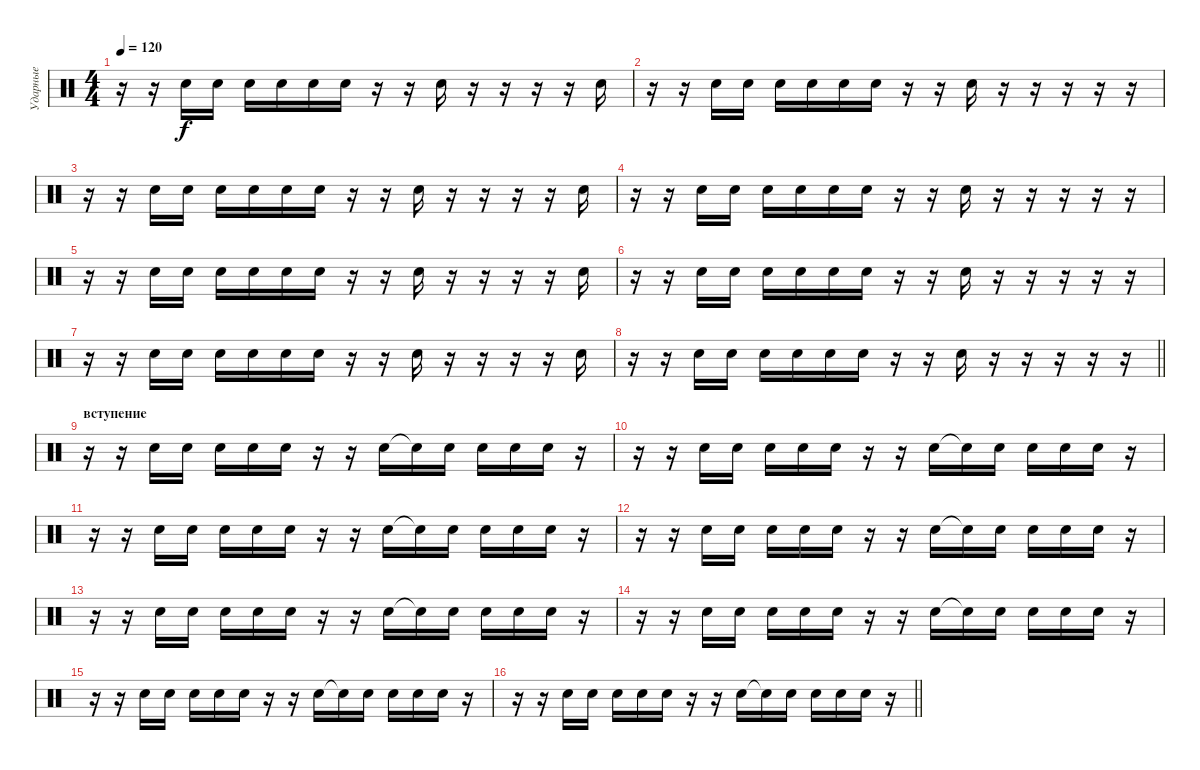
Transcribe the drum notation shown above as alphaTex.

\track ("Ударные" "Ударные") {instrument percussion}
\staff {score}
\articulation defaults
\ts (4 4)
\tempo 120
\clef neutral
\ks c
r.16{dy f} r.16 "Hand Clap (hit)".16 "Hand Clap (hit)".16 "Hand Clap (hit)".16 "Hand Clap (hit)".16 "Hand Clap (hit)".16 "Hand Clap (hit)".16 r.16 r.16 "Hand Clap (hit)".16 r.16 r.16 r.16 r.16 "Hand Clap (hit)".16 |
r.16 r.16 "Hand Clap (hit)".16 "Hand Clap (hit)".16 "Hand Clap (hit)".16 "Hand Clap (hit)".16 "Hand Clap (hit)".16 "Hand Clap (hit)".16 r.16 r.16 "Hand Clap (hit)".16 r.16 r.16 r.16 r.16 r.16 |
r.16 r.16 "Hand Clap (hit)".16 "Hand Clap (hit)".16 "Hand Clap (hit)".16 "Hand Clap (hit)".16 "Hand Clap (hit)".16 "Hand Clap (hit)".16 r.16 r.16 "Hand Clap (hit)".16 r.16 r.16 r.16 r.16 "Hand Clap (hit)".16 |
r.16 r.16 "Hand Clap (hit)".16 "Hand Clap (hit)".16 "Hand Clap (hit)".16 "Hand Clap (hit)".16 "Hand Clap (hit)".16 "Hand Clap (hit)".16 r.16 r.16 "Hand Clap (hit)".16 r.16 r.16 r.16 r.16 r.16 |
r.16 r.16 "Hand Clap (hit)".16 "Hand Clap (hit)".16 "Hand Clap (hit)".16 "Hand Clap (hit)".16 "Hand Clap (hit)".16 "Hand Clap (hit)".16 r.16 r.16 "Hand Clap (hit)".16 r.16 r.16 r.16 r.16 "Hand Clap (hit)".16 |
r.16 r.16 "Hand Clap (hit)".16 "Hand Clap (hit)".16 "Hand Clap (hit)".16 "Hand Clap (hit)".16 "Hand Clap (hit)".16 "Hand Clap (hit)".16 r.16 r.16 "Hand Clap (hit)".16 r.16 r.16 r.16 r.16 r.16 |
r.16 r.16 "Hand Clap (hit)".16 "Hand Clap (hit)".16 "Hand Clap (hit)".16 "Hand Clap (hit)".16 "Hand Clap (hit)".16 "Hand Clap (hit)".16 r.16 r.16 "Hand Clap (hit)".16 r.16 r.16 r.16 r.16 "Hand Clap (hit)".16 |
\barLineRight lightlight
r.16 r.16 "Hand Clap (hit)".16 "Hand Clap (hit)".16 "Hand Clap (hit)".16 "Hand Clap (hit)".16 "Hand Clap (hit)".16 "Hand Clap (hit)".16 r.16 r.16 "Hand Clap (hit)".16 r.16 r.16 r.16 r.16 r.16 |
\section ("" "вступение")
r.16 r.16 "Hand Clap (hit)".16 "Hand Clap (hit)".16 "Hand Clap (hit)".16 "Hand Clap (hit)".16 "Hand Clap (hit)".16 r.16 r.16 "Hand Clap (hit)".16 "Hand Clap (hit)"{t}.16 "Hand Clap (hit)".16 "Hand Clap (hit)".16 "Hand Clap (hit)".16 "Hand Clap (hit)".16 r.16 |
r.16 r.16 "Hand Clap (hit)".16 "Hand Clap (hit)".16 "Hand Clap (hit)".16 "Hand Clap (hit)".16 "Hand Clap (hit)".16 r.16 r.16 "Hand Clap (hit)".16 "Hand Clap (hit)"{t}.16 "Hand Clap (hit)".16 "Hand Clap (hit)".16 "Hand Clap (hit)".16 "Hand Clap (hit)".16 r.16 |
r.16 r.16 "Hand Clap (hit)".16 "Hand Clap (hit)".16 "Hand Clap (hit)".16 "Hand Clap (hit)".16 "Hand Clap (hit)".16 r.16 r.16 "Hand Clap (hit)".16 "Hand Clap (hit)"{t}.16 "Hand Clap (hit)".16 "Hand Clap (hit)".16 "Hand Clap (hit)".16 "Hand Clap (hit)".16 r.16 |
r.16 r.16 "Hand Clap (hit)".16 "Hand Clap (hit)".16 "Hand Clap (hit)".16 "Hand Clap (hit)".16 "Hand Clap (hit)".16 r.16 r.16 "Hand Clap (hit)".16 "Hand Clap (hit)"{t}.16 "Hand Clap (hit)".16 "Hand Clap (hit)".16 "Hand Clap (hit)".16 "Hand Clap (hit)".16 r.16 |
r.16 r.16 "Hand Clap (hit)".16 "Hand Clap (hit)".16 "Hand Clap (hit)".16 "Hand Clap (hit)".16 "Hand Clap (hit)".16 r.16 r.16 "Hand Clap (hit)".16 "Hand Clap (hit)"{t}.16 "Hand Clap (hit)".16 "Hand Clap (hit)".16 "Hand Clap (hit)".16 "Hand Clap (hit)".16 r.16 |
r.16 r.16 "Hand Clap (hit)".16 "Hand Clap (hit)".16 "Hand Clap (hit)".16 "Hand Clap (hit)".16 "Hand Clap (hit)".16 r.16 r.16 "Hand Clap (hit)".16 "Hand Clap (hit)"{t}.16 "Hand Clap (hit)".16 "Hand Clap (hit)".16 "Hand Clap (hit)".16 "Hand Clap (hit)".16 r.16 |
r.16 r.16 "Hand Clap (hit)".16 "Hand Clap (hit)".16 "Hand Clap (hit)".16 "Hand Clap (hit)".16 "Hand Clap (hit)".16 r.16 r.16 "Hand Clap (hit)".16 "Hand Clap (hit)"{t}.16 "Hand Clap (hit)".16 "Hand Clap (hit)".16 "Hand Clap (hit)".16 "Hand Clap (hit)".16 r.16 |
\barLineRight lightlight
r.16 r.16 "Hand Clap (hit)".16 "Hand Clap (hit)".16 "Hand Clap (hit)".16 "Hand Clap (hit)".16 "Hand Clap (hit)".16 r.16 r.16 "Hand Clap (hit)".16 "Hand Clap (hit)"{t}.16 "Hand Clap (hit)".16 "Hand Clap (hit)".16 "Hand Clap (hit)".16 "Hand Clap (hit)".16 r.16
